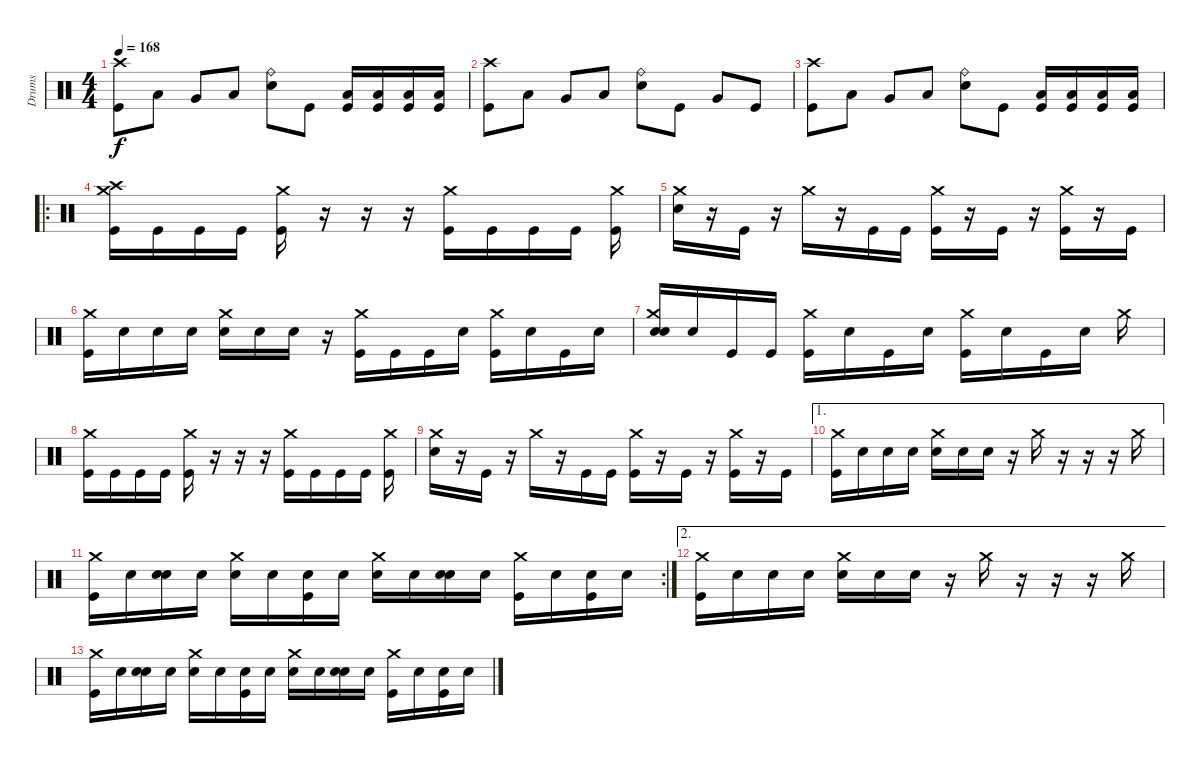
\track ("Drums" "Drums") {instrument percussion}
\staff {score}
\articulation defaults
\ts (4 4)
\tempo 168
\clef neutral
\ks c
("Crash high (hit)" "Kick (hit)").8{dy f} "Low Tom (hit)".8 "Very Low Tom (hit)".8 "Low Floor Tom (hit)".8 ("Ride (bell)" "Electric Snare (hit)").8 "Kick (hit)".8 ("Low Floor Tom (hit)" "Kick (hit)").16 ("Low Floor Tom (hit)" "Kick (hit)").16 ("Low Floor Tom (hit)" "Kick (hit)").16 ("Low Floor Tom (hit)" "Kick (hit)").16 |
("Crash high (hit)" "Kick (hit)").8 "Low Tom (hit)".8 "Very Low Tom (hit)".8 "Low Floor Tom (hit)".8 ("Ride (bell)" "Electric Snare (hit)").8 "Kick (hit)".8 "Very Low Tom (hit)".8 "Kick (hit)".8 |
("Crash high (hit)" "Kick (hit)").8 "Low Tom (hit)".8 "Very Low Tom (hit)".8 "Low Floor Tom (hit)".8 ("Ride (bell)" "Electric Snare (hit)").8 "Kick (hit)".8 ("Low Floor Tom (hit)" "Kick (hit)").16 ("Low Floor Tom (hit)" "Kick (hit)").16 ("Low Floor Tom (hit)" "Kick (hit)").16 ("Low Floor Tom (hit)" "Kick (hit)").16 |
\ro
("Crash medium (hit)" "Crash high (hit)" "Kick (hit)").16 "Kick (hit)".16 "Kick (hit)".16 "Kick (hit)".16 ("Crash medium (hit)" "Kick (hit)").16 r.16 r.16 r.16 ("Crash medium (hit)" "Kick (hit)").16 "Kick (hit)".16 "Kick (hit)".16 "Kick (hit)".16 ("Crash medium (hit)" "Kick (hit)").16 |
("Crash medium (hit)" "Electric Snare (hit)").16 r.16 "Kick (hit)".16 r.16 "Crash medium (hit)".16 r.16 "Kick (hit)".16 "Kick (hit)".16 ("Crash medium (hit)" "Kick (hit)").16 r.16 "Kick (hit)".16 r.16 ("Crash medium (hit)" "Kick (hit)").16 r.16 "Kick (hit)".16 |
("Crash medium (hit)" "Kick (hit)").16 "Snare (hit)".16 "Snare (hit)".16 "Snare (hit)".16 ("Crash medium (hit)" "Snare (hit)").16 "Snare (hit)".16 "Snare (hit)".16 r.16 ("Crash medium (hit)" "Kick (hit)").16 "Kick (hit)".16 "Kick (hit)".16 "Snare (hit)".16 ("Crash medium (hit)" "Kick (hit)").16 "Snare (hit)".16 "Kick (hit)".16 "Snare (hit)".16 |
("Crash medium (hit)" "Electric Snare (hit)" "Snare (hit)").16 "Snare (hit)".16 "Kick (hit)".16 "Kick (hit)".16 ("Crash medium (hit)" "Kick (hit)").16 "Snare (hit)".16 "Kick (hit)".16 "Snare (hit)".16 ("Crash medium (hit)" "Kick (hit)").16 "Snare (hit)".16 "Kick (hit)".16 "Snare (hit)".16 "Crash medium (hit)".16 |
("Crash medium (hit)" "Kick (hit)").16 "Kick (hit)".16 "Kick (hit)".16 "Kick (hit)".16 ("Crash medium (hit)" "Kick (hit)").16 r.16 r.16 r.16 ("Crash medium (hit)" "Kick (hit)").16 "Kick (hit)".16 "Kick (hit)".16 "Kick (hit)".16 ("Crash medium (hit)" "Kick (hit)").16 |
("Crash medium (hit)" "Electric Snare (hit)").16 r.16 "Kick (hit)".16 r.16 "Crash medium (hit)".16 r.16 "Kick (hit)".16 "Kick (hit)".16 ("Crash medium (hit)" "Kick (hit)").16 r.16 "Kick (hit)".16 r.16 ("Crash medium (hit)" "Kick (hit)").16 r.16 "Kick (hit)".16 |
\ae 1
("Crash medium (hit)" "Kick (hit)").16 "Snare (hit)".16 "Snare (hit)".16 "Snare (hit)".16 ("Crash medium (hit)" "Snare (hit)").16 "Snare (hit)".16 "Snare (hit)".16 r.16 "Crash medium (hit)".16 r.16 r.16 r.16 "Crash medium (hit)".16 |
\rc 2
("Crash medium (hit)" "Kick (hit)").16 "Snare (hit)".16 ("Snare (hit)" "Electric Snare (hit)").16 "Snare (hit)".16 ("Crash medium (hit)" "Electric Snare (hit)").16 "Snare (hit)".16 ("Snare (hit)" "Kick (hit)").16 "Snare (hit)".16 ("Crash medium (hit)" "Electric Snare (hit)").16 "Snare (hit)".16 ("Snare (hit)" "Electric Snare (hit)").16 "Snare (hit)".16 ("Crash medium (hit)" "Kick (hit)").16 "Snare (hit)".16 ("Snare (hit)" "Kick (hit)").16 "Snare (hit)".16 |
\ae 2
("Crash medium (hit)" "Kick (hit)").16 "Snare (hit)".16 "Snare (hit)".16 "Snare (hit)".16 ("Crash medium (hit)" "Snare (hit)").16 "Snare (hit)".16 "Snare (hit)".16 r.16 "Crash medium (hit)".16 r.16 r.16 r.16 "Crash medium (hit)".16 |
("Crash medium (hit)" "Kick (hit)").16 "Snare (hit)".16 ("Snare (hit)" "Electric Snare (hit)").16 "Snare (hit)".16 ("Crash medium (hit)" "Electric Snare (hit)").16 "Snare (hit)".16 ("Snare (hit)" "Kick (hit)").16 "Snare (hit)".16 ("Crash medium (hit)" "Electric Snare (hit)").16 "Snare (hit)".16 ("Snare (hit)" "Electric Snare (hit)").16 "Snare (hit)".16 ("Crash medium (hit)" "Kick (hit)").16 "Snare (hit)".16 ("Snare (hit)" "Kick (hit)").16 "Snare (hit)".16
